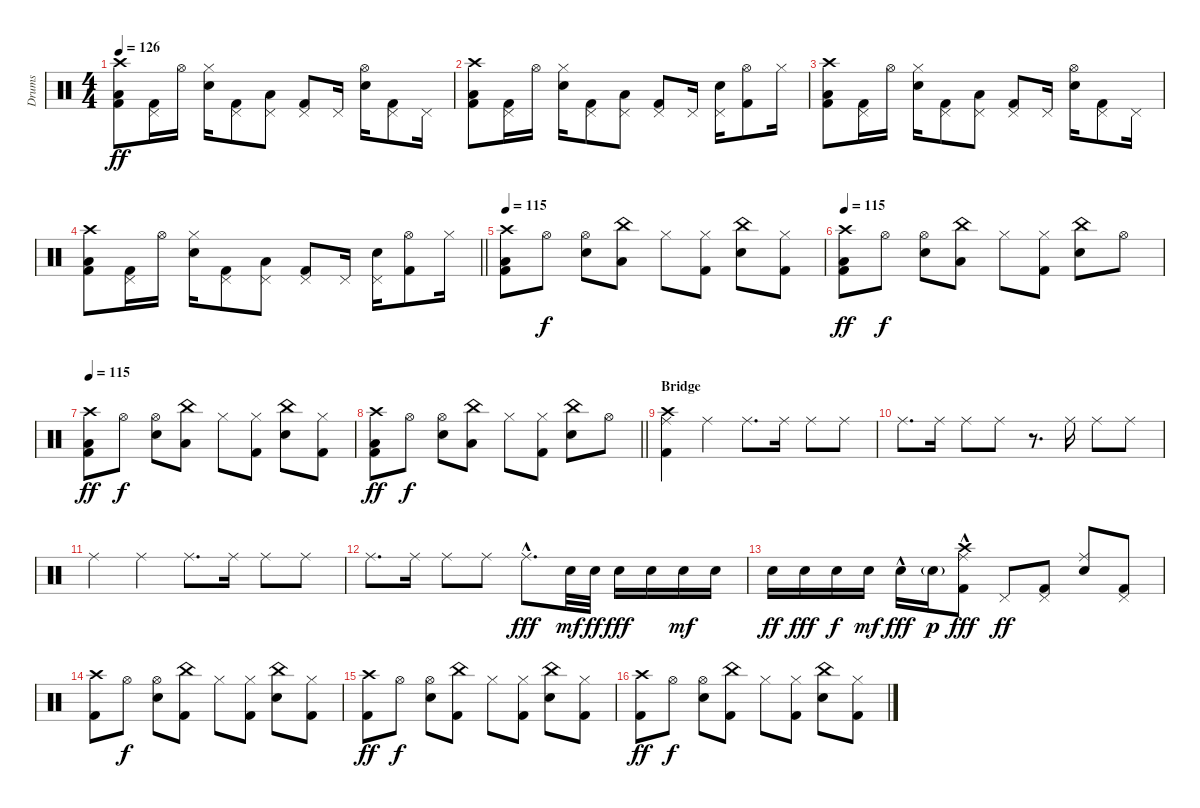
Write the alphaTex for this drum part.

\track ("Drums" "Drums") {instrument percussion}
\staff {score}
\articulation defaults
\ts (4 4)
\tempo 126
\clef neutral
\ks c
("Low Tom (hit)" "Kick (hit) 2" "Crash high (hit)").8{dy ff} ("Kick (hit) 2" "Pedal Hi-Hat (hit)").16 "Hi-Hat (open)".16 ("Snare (hit) 2" "Hi-Hat (closed)").16 ("Kick (hit) 2" "Pedal Hi-Hat (hit)").8 ("Low Tom (hit)" "Pedal Hi-Hat (hit)").8 ("Kick (hit) 2" "Pedal Hi-Hat (hit)").8 "Pedal Hi-Hat (hit)".16 ("Snare (hit) 2" "Hi-Hat (open)").16 ("Kick (hit) 2" "Pedal Hi-Hat (hit)").8 "Pedal Hi-Hat (hit)".16 |
("Low Tom (hit)" "Kick (hit) 2" "Crash high (hit)").8 ("Kick (hit) 2" "Pedal Hi-Hat (hit)").16 "Hi-Hat (open)".16 ("Snare (hit) 2" "Hi-Hat (closed)").16 ("Kick (hit) 2" "Pedal Hi-Hat (hit)").8 ("Low Tom (hit)" "Pedal Hi-Hat (hit)").8 ("Kick (hit) 2" "Pedal Hi-Hat (hit)").8 "Pedal Hi-Hat (hit)".16 ("Snare (hit) 2" "Pedal Hi-Hat (hit)").16 ("Kick (hit) 2" "Hi-Hat (open)").8 "Hi-Hat (closed)".16 |
("Low Tom (hit)" "Kick (hit) 2" "Crash high (hit)").8 ("Kick (hit) 2" "Pedal Hi-Hat (hit)").16 "Hi-Hat (open)".16 ("Snare (hit) 2" "Hi-Hat (closed)").16 ("Kick (hit) 2" "Pedal Hi-Hat (hit)").8 ("Low Tom (hit)" "Pedal Hi-Hat (hit)").8 ("Kick (hit) 2" "Pedal Hi-Hat (hit)").8 "Pedal Hi-Hat (hit)".16 ("Snare (hit) 2" "Hi-Hat (open)").16 ("Kick (hit) 2" "Pedal Hi-Hat (hit)").8 "Pedal Hi-Hat (hit)".16 |
\barLineRight lightlight
("Low Tom (hit)" "Kick (hit) 2" "Crash high (hit)").8 ("Kick (hit) 2" "Pedal Hi-Hat (hit)").16 "Hi-Hat (open)".16 ("Snare (hit) 2" "Hi-Hat (closed)").16 ("Kick (hit) 2" "Pedal Hi-Hat (hit)").8 ("Low Tom (hit)" "Pedal Hi-Hat (hit)").8 ("Kick (hit) 2" "Pedal Hi-Hat (hit)").8 "Pedal Hi-Hat (hit)".16 ("Snare (hit) 2" "Pedal Hi-Hat (hit)").16 ("Kick (hit) 2" "Hi-Hat (open)").8 "Hi-Hat (closed)".16 |
\tempo 115
("Low Tom (hit)" "Kick (hit) 2" "Crash high (hit)").8 "Hi-Hat (open)".8{dy f} ("Snare (hit) 2" "Hi-Hat (open)").8 ("Low Tom (hit)" "China (hit)").8 "Hi-Hat (closed)".8 ("Kick (hit) 2" "Hi-Hat (closed)").8 ("Snare (hit) 2" "China (hit)").8 ("Kick (hit) 2" "Hi-Hat (closed)").8 |
\tempo 115
("Low Tom (hit)" "Kick (hit) 2" "Crash high (hit)").8{dy ff} "Hi-Hat (open)".8{dy f} ("Snare (hit) 2" "Hi-Hat (open)").8 ("Low Tom (hit)" "China (hit)").8 "Hi-Hat (closed)".8 ("Kick (hit) 2" "Hi-Hat (closed)").8 ("Snare (hit) 2" "China (hit)").8 "Hi-Hat (open)".8 |
\tempo 115
("Low Tom (hit)" "Kick (hit) 2" "Crash high (hit)").8{dy ff} "Hi-Hat (open)".8{dy f} ("Snare (hit) 2" "Hi-Hat (open)").8 ("Low Tom (hit)" "China (hit)").8 "Hi-Hat (closed)".8 ("Kick (hit) 2" "Hi-Hat (closed)").8 ("Snare (hit) 2" "China (hit)").8 ("Kick (hit) 2" "Hi-Hat (closed)").8 |
\barLineRight lightlight
("Low Tom (hit)" "Kick (hit) 2" "Crash high (hit)").8{dy ff} "Hi-Hat (open)".8{dy f} ("Snare (hit) 2" "Hi-Hat (open)").8 ("Low Tom (hit)" "China (hit)").8 "Hi-Hat (closed)".8 ("Kick (hit) 2" "Hi-Hat (closed)").8 ("Snare (hit) 2" "China (hit)").8 "Hi-Hat (open)".8 |
\section ("" "Bridge")
("Crash high (hit)" "Kick (hit) 2" "Ride (middle)").4 "Ride (middle)".4 "Ride (middle)".8{d} "Ride (middle)".16 "Ride (middle)".8 "Ride (middle)".8 |
"Ride (middle)".8{d} "Ride (middle)".16 "Ride (middle)".8 "Ride (middle)".8 r.8{d} "Ride (middle)".16 "Ride (middle)".8 "Ride (middle)".8 |
"Ride (middle)".4 "Ride (middle)".4 "Ride (middle)".8{d} "Ride (middle)".16 "Ride (middle)".8 "Ride (middle)".8 |
"Ride (middle)".8{d} "Ride (middle)".16 "Ride (middle)".8 "Ride (middle)".8 "Ride (middle)"{hac}.8{d dy fff} "Electric Snare (hit)".32{dy mf} "Electric Snare (hit)".32{dy ff} "Electric Snare (hit)".16{dy fff} "Electric Snare (hit)".16 "Electric Snare (hit)".16{dy mf} "Electric Snare (hit)".16 |
"Electric Snare (hit)".16{dy ff} "Electric Snare (hit)".16{dy fff} "Electric Snare (hit)".16{dy f} "Electric Snare (hit)".16{dy mf} "Electric Snare (hit)"{hac}.16{dy fff} "Electric Snare (hit)"{g}.16{dy p} ("Crash high (hit)"{hac} "Kick (hit) 2"{hac} "Ride (middle)"{hac}).8{dy fff} "Pedal Hi-Hat (hit)".8{dy ff} ("Kick (hit) 2" "Pedal Hi-Hat (hit)").8 ("Electric Snare (hit)" "Ride (middle)").8 ("Kick (hit) 2" "Pedal Hi-Hat (hit)").8 |
("Kick (hit) 2" "Crash high (hit)").8 "Hi-Hat (open)".8{dy f} ("Electric Snare (hit)" "Hi-Hat (open)").8 ("Kick (hit) 2" "China (hit)").8 "Hi-Hat (closed)".8 ("Kick (hit) 2" "Hi-Hat (closed)").8 ("Snare (hit) 2" "China (hit)").8 ("Kick (hit) 2" "Hi-Hat (closed)").8 |
("Kick (hit) 2" "Crash high (hit)").8{dy ff} "Hi-Hat (open)".8{dy f} ("Electric Snare (hit)" "Hi-Hat (open)").8 ("Kick (hit) 2" "China (hit)").8 "Hi-Hat (closed)".8 ("Kick (hit) 2" "Hi-Hat (closed)").8 ("Snare (hit) 2" "China (hit)").8 ("Kick (hit) 2" "Hi-Hat (closed)").8 |
("Kick (hit) 2" "Crash high (hit)").8{dy ff} "Hi-Hat (open)".8{dy f} ("Electric Snare (hit)" "Hi-Hat (open)").8 ("Kick (hit) 2" "China (hit)").8 "Hi-Hat (closed)".8 ("Kick (hit) 2" "Hi-Hat (closed)").8 ("Snare (hit) 2" "China (hit)").8 ("Kick (hit) 2" "Hi-Hat (closed)").8
